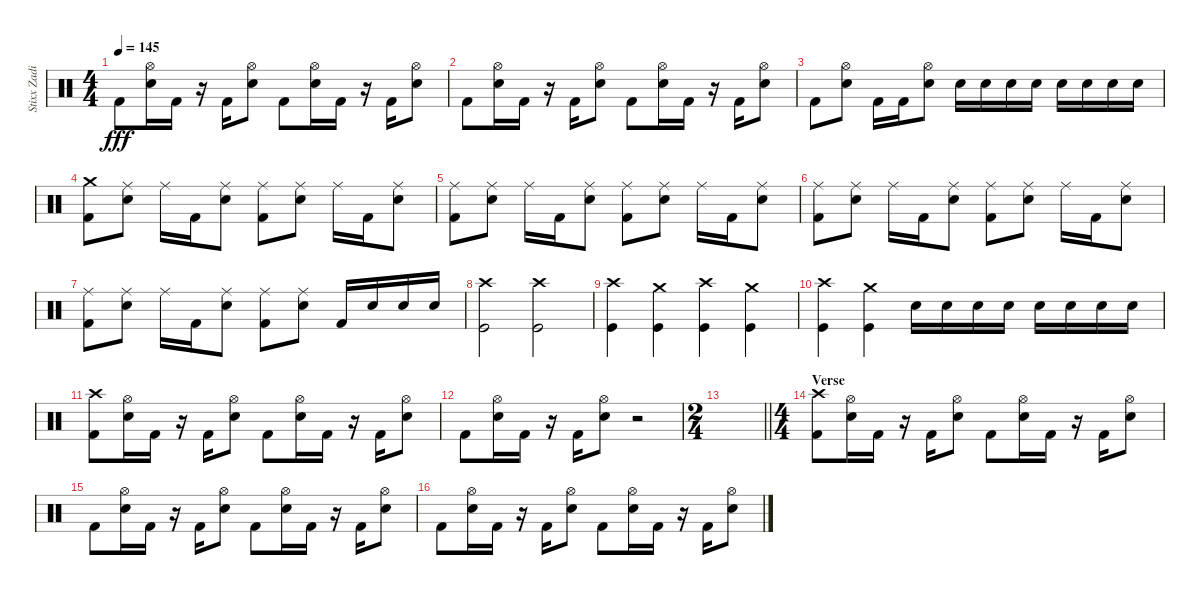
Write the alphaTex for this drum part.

\track ("Stixx Zadina (Sticks it in ya)" "Stixx Zadi") {instrument percussion}
\staff {score}
\articulation defaults
\ts (4 4)
\tempo 145
\clef neutral
\ks c "Kick (hit) 2".8{dy fff}
("Hi-Hat (open)" "Electric Snare (hit)").16 "Kick (hit) 2".16 r.16 "Kick (hit) 2".16 ("Hi-Hat (open)" "Electric Snare (hit)").8 "Kick (hit) 2".8 ("Hi-Hat (open)" "Electric Snare (hit)").16 "Kick (hit) 2".16 r.16 "Kick (hit) 2".16 ("Hi-Hat (open)" "Electric Snare (hit)").8 |
"Kick (hit) 2".8 ("Hi-Hat (open)" "Electric Snare (hit)").16 "Kick (hit) 2".16 r.16 "Kick (hit) 2".16 ("Hi-Hat (open)" "Electric Snare (hit)").8 "Kick (hit) 2".8 ("Hi-Hat (open)" "Electric Snare (hit)").16 "Kick (hit) 2".16 r.16 "Kick (hit) 2".16 ("Hi-Hat (open)" "Electric Snare (hit)").8 |
"Kick (hit) 2".8 ("Hi-Hat (open)" "Electric Snare (hit)").8 "Kick (hit) 2".16 "Kick (hit) 2".16 ("Hi-Hat (open)" "Electric Snare (hit)").8 "Electric Snare (hit)".16 "Electric Snare (hit)".16 "Electric Snare (hit)".16 "Electric Snare (hit)".16 "Electric Snare (hit)".16 "Electric Snare (hit)".16 "Electric Snare (hit)".16 "Electric Snare (hit)".16 |
("Crash medium (hit)" "Kick (hit) 2").8 ("Ride (middle)" "Electric Snare (hit)").8 "Ride (middle)".16 "Kick (hit) 2".16 ("Ride (middle)" "Electric Snare (hit)").8 ("Ride (middle)" "Kick (hit) 2").8 ("Ride (middle)" "Electric Snare (hit)").8 "Ride (middle)".16 "Kick (hit) 2".16 ("Ride (middle)" "Electric Snare (hit)").8 |
("Ride (middle)" "Kick (hit) 2").8 ("Ride (middle)" "Electric Snare (hit)").8 "Ride (middle)".16 "Kick (hit) 2".16 ("Ride (middle)" "Electric Snare (hit)").8 ("Ride (middle)" "Kick (hit) 2").8 ("Ride (middle)" "Electric Snare (hit)").8 "Ride (middle)".16 "Kick (hit) 2".16 ("Ride (middle)" "Electric Snare (hit)").8 |
("Ride (middle)" "Kick (hit) 2").8 ("Ride (middle)" "Electric Snare (hit)").8 "Ride (middle)".16 "Kick (hit) 2".16 ("Ride (middle)" "Electric Snare (hit)").8 ("Ride (middle)" "Kick (hit) 2").8 ("Ride (middle)" "Electric Snare (hit)").8 "Ride (middle)".16 "Kick (hit) 2".16 ("Ride (middle)" "Electric Snare (hit)").8 |
("Ride (middle)" "Kick (hit) 2").8 ("Ride (middle)" "Electric Snare (hit)").8 "Ride (middle)".16 "Kick (hit) 2".16 ("Ride (middle)" "Electric Snare (hit)").8 ("Ride (middle)" "Kick (hit) 2").8 ("Ride (middle)" "Electric Snare (hit)").8 "Kick (hit) 2".16 "Electric Snare (hit)".16 "Electric Snare (hit)".16 "Electric Snare (hit)".16 |
("Crash high (hit)" "Kick (hit)").2 ("Crash high (hit)" "Kick (hit)").2 |
("Crash high (hit)" "Kick (hit)").4 ("Crash medium (hit)" "Kick (hit)").4 ("Crash high (hit)" "Kick (hit)").4 ("Crash medium (hit)" "Kick (hit)").4 |
("Crash high (hit)" "Kick (hit)").4 ("Crash medium (hit)" "Kick (hit)").4 "Electric Snare (hit)".16 "Electric Snare (hit)".16 "Electric Snare (hit)".16 "Electric Snare (hit)".16 "Electric Snare (hit)".16 "Electric Snare (hit)".16 "Electric Snare (hit)".16 "Electric Snare (hit)".16 |
("Crash high (hit)" "Kick (hit) 2").8 ("Hi-Hat (open)" "Electric Snare (hit)").16 "Kick (hit) 2".16 r.16 "Kick (hit) 2".16 ("Hi-Hat (open)" "Electric Snare (hit)").8 "Kick (hit) 2".8 ("Hi-Hat (open)" "Electric Snare (hit)").16 "Kick (hit) 2".16 r.16 "Kick (hit) 2".16 ("Hi-Hat (open)" "Electric Snare (hit)").8 |
"Kick (hit) 2".8 ("Hi-Hat (open)" "Electric Snare (hit)").16 "Kick (hit) 2".16 r.16 "Kick (hit) 2".16 ("Hi-Hat (open)" "Electric Snare (hit)").8 r.2 |
\ts (2 4)
\barLineRight lightlight
|
\ts (4 4)
\section ("" "Verse")
("Crash high (hit)" "Kick (hit) 2").8 ("Hi-Hat (open)" "Electric Snare (hit)").16 "Kick (hit) 2".16 r.16 "Kick (hit) 2".16 ("Hi-Hat (open)" "Electric Snare (hit)").8 "Kick (hit) 2".8 ("Hi-Hat (open)" "Electric Snare (hit)").16 "Kick (hit) 2".16 r.16 "Kick (hit) 2".16 ("Hi-Hat (open)" "Electric Snare (hit)").8 |
"Kick (hit) 2".8 ("Hi-Hat (open)" "Electric Snare (hit)").16 "Kick (hit) 2".16 r.16 "Kick (hit) 2".16 ("Hi-Hat (open)" "Electric Snare (hit)").8 "Kick (hit) 2".8 ("Hi-Hat (open)" "Electric Snare (hit)").16 "Kick (hit) 2".16 r.16 "Kick (hit) 2".16 ("Hi-Hat (open)" "Electric Snare (hit)").8 |
"Kick (hit) 2".8 ("Hi-Hat (open)" "Electric Snare (hit)").16 "Kick (hit) 2".16 r.16 "Kick (hit) 2".16 ("Hi-Hat (open)" "Electric Snare (hit)").8 "Kick (hit) 2".8 ("Hi-Hat (open)" "Electric Snare (hit)").16 "Kick (hit) 2".16 r.16 "Kick (hit) 2".16 ("Hi-Hat (open)" "Electric Snare (hit)").8
